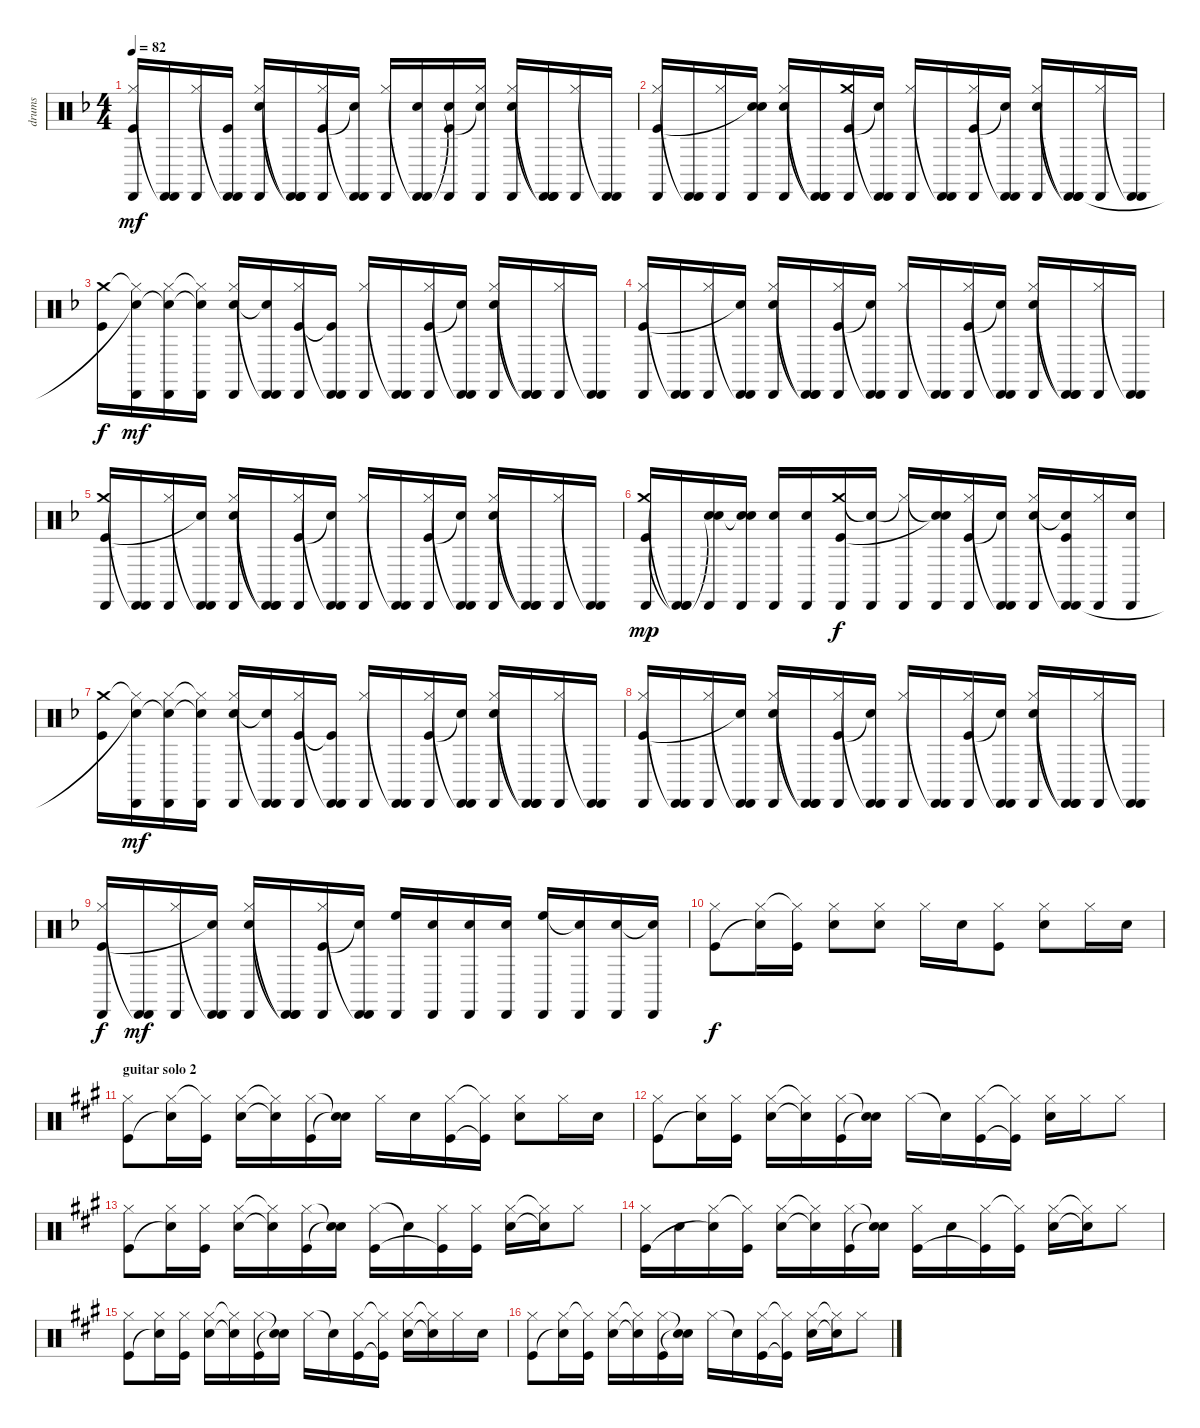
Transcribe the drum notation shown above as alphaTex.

\track ("drums" "drums") {instrument percussion}
\staff {score}
\articulation defaults
\ts (4 4)
\tempo 82
\clef neutral
\ks f
("Hi-Hat (closed)" "Cabasa (hit)" "Kick (hit)").16{dy mf} ("Cabasa (hit)"{t} "Cabasa (hit)").16 ("Hi-Hat (closed)" "Cabasa (hit)").16 ("Cabasa (hit)"{t} "Cabasa (hit)" "Kick (hit)").16 ("Hi-Hat (closed)" "Snare (hit) 2" "Cabasa (hit)").16 ("Cabasa (hit)"{t} "Cabasa (hit)"{t} "Cabasa (hit)").16 ("Hi-Hat (closed)" "Cabasa (hit)" "Kick (hit)").16 ("Cabasa (hit)"{t} "Cabasa (hit)" "Snare (hit)"{t}).16 ("Hi-Hat (closed)" "Cabasa (hit)").16 ("Cabasa (hit)"{t} "Snare (hit) 2" "Cabasa (hit)").16 ("Snare (hit)"{t} "Cabasa (hit)" "Kick (hit)").16 ("Hi-Hat (closed)" "Cabasa (hit)" "Snare (hit)"{t}).16 ("Hi-Hat (closed)" "Snare (hit) 2" "Cabasa (hit)").16 ("Cabasa (hit)"{t} "Cabasa (hit)"{t} "Cabasa (hit)").16 ("Hi-Hat (closed)" "Cabasa (hit)").16 ("Cabasa (hit)"{t} "Cabasa (hit)").16 |
("Hi-Hat (closed)" "Cabasa (hit)" "Kick (hit)").16 ("Cabasa (hit)"{t} "Cabasa (hit)").16 ("Hi-Hat (closed)" "Cabasa (hit)").16 ("Snare (hit) 2" "Cabasa (hit)" "Snare (hit)"{t}).16 ("Hi-Hat (closed)" "Snare (hit) 2" "Cabasa (hit)").16 ("Cabasa (hit)"{t} "Cabasa (hit)"{t} "Cabasa (hit)").16 ("Crash medium (hit)" "Cabasa (hit)" "Kick (hit)").16 ("Cabasa (hit)"{t} "Cabasa (hit)" "Snare (hit)"{t}).16 ("Hi-Hat (closed)" "Cabasa (hit)").16 ("Cabasa (hit)"{t} "Cabasa (hit)").16 ("Hi-Hat (closed)" "Cabasa (hit)" "Kick (hit)").16 ("Cabasa (hit)"{t} "Cabasa (hit)" "Snare (hit)"{t}).16 ("Hi-Hat (closed)" "Snare (hit) 2" "Cabasa (hit)").16 ("Cabasa (hit)"{t} "Cabasa (hit)"{t} "Cabasa (hit)").16 ("Hi-Hat (closed)" "Cabasa (hit)").16 ("Cabasa (hit)"{t} "Cabasa (hit)").16 |
("Crash medium (hit)" "Kick (hit)").16{dy f} ("Hi-Hat (closed)"{t} "Cabasa (hit)" "Snare (hit)"{t}).16{dy mf} ("Hi-Hat (closed)" "Cabasa (hit)" "Snare (hit)"{t}).16 ("Hi-Hat (closed)"{t} "Cabasa (hit)" "Snare (hit)"{t}).16 ("Hi-Hat (closed)" "Snare (hit) 2" "Cabasa (hit)").16 ("Cabasa (hit)"{t} "Snare (hit)"{t} "Cabasa (hit)").16 ("Hi-Hat (closed)" "Cabasa (hit)" "Kick (hit)").16 ("Cabasa (hit)"{t} "Cabasa (hit)" "Kick (hit)"{t}).16 ("Hi-Hat (closed)" "Cabasa (hit)").16 ("Cabasa (hit)"{t} "Cabasa (hit)").16 ("Hi-Hat (closed)" "Cabasa (hit)" "Kick (hit)").16 ("Cabasa (hit)"{t} "Cabasa (hit)" "Snare (hit)"{t}).16 ("Hi-Hat (closed)" "Snare (hit) 2" "Cabasa (hit)").16 ("Cabasa (hit)"{t} "Cabasa (hit)"{t} "Cabasa (hit)").16 ("Hi-Hat (closed)" "Cabasa (hit)").16 ("Cabasa (hit)"{t} "Cabasa (hit)").16 |
("Hi-Hat (closed)" "Cabasa (hit)" "Kick (hit)").16 ("Cabasa (hit)"{t} "Cabasa (hit)").16 ("Hi-Hat (closed)" "Cabasa (hit)").16 ("Cabasa (hit)"{t} "Cabasa (hit)" "Snare (hit)"{t}).16 ("Hi-Hat (closed)" "Snare (hit) 2" "Cabasa (hit)").16 ("Cabasa (hit)"{t} "Cabasa (hit)"{t} "Cabasa (hit)").16 ("Hi-Hat (closed)" "Cabasa (hit)" "Kick (hit)").16 ("Cabasa (hit)"{t} "Cabasa (hit)" "Snare (hit)"{t}).16 ("Hi-Hat (closed)" "Cabasa (hit)").16 ("Cabasa (hit)"{t} "Cabasa (hit)").16 ("Hi-Hat (closed)" "Cabasa (hit)" "Kick (hit)").16 ("Cabasa (hit)"{t} "Cabasa (hit)" "Snare (hit)"{t}).16 ("Hi-Hat (closed)" "Snare (hit) 2" "Cabasa (hit)").16 ("Cabasa (hit)"{t} "Cabasa (hit)"{t} "Cabasa (hit)").16 ("Hi-Hat (closed)" "Cabasa (hit)").16 ("Cabasa (hit)"{t} "Cabasa (hit)").16 |
("Crash medium (hit)" "Cabasa (hit)" "Kick (hit)").16 ("Cabasa (hit)"{t} "Cabasa (hit)").16 ("Hi-Hat (closed)" "Cabasa (hit)").16 ("Cabasa (hit)"{t} "Cabasa (hit)" "Snare (hit)"{t}).16 ("Hi-Hat (closed)" "Snare (hit) 2" "Cabasa (hit)").16 ("Cabasa (hit)"{t} "Cabasa (hit)"{t} "Cabasa (hit)").16 ("Hi-Hat (closed)" "Cabasa (hit)" "Kick (hit)").16 ("Cabasa (hit)"{t} "Cabasa (hit)" "Snare (hit)"{t}).16 ("Hi-Hat (closed)" "Cabasa (hit)").16 ("Cabasa (hit)"{t} "Cabasa (hit)").16 ("Hi-Hat (closed)" "Cabasa (hit)" "Kick (hit)").16 ("Cabasa (hit)"{t} "Cabasa (hit)" "Snare (hit)"{t}).16 ("Hi-Hat (closed)" "Snare (hit) 2" "Cabasa (hit)").16 ("Cabasa (hit)"{t} "Cabasa (hit)"{t} "Cabasa (hit)").16 ("Hi-Hat (closed)" "Cabasa (hit)").16 ("Cabasa (hit)"{t} "Cabasa (hit)").16 |
("Crash medium (hit)" "Cabasa (hit)" "Kick (hit)").16{dy mp} ("Cabasa (hit)"{t} "Cabasa (hit)" "Cabasa (hit)"{t}).16 ("Snare (hit) 2" "Cabasa (hit)" "Snare (hit)"{t}).16 ("Snare (hit) 2" "Cabasa (hit)" "Snare (hit)"{t}).16 ("Snare (hit) 2" "Cabasa (hit)").16 ("Snare (hit) 2" "Cabasa (hit)").16 ("Crash medium (hit)" "Cabasa (hit)" "Kick (hit)").16{dy f} ("Snare (hit)"{t} "Cabasa (hit)").16 ("Hi-Hat (closed)"{t} "Cabasa (hit)").16 ("Snare (hit)"{t} "Cabasa (hit)" "Snare (hit)"{t}).16 ("Hi-Hat (closed)" "Cabasa (hit)" "Kick (hit)").16 ("Cabasa (hit)"{t} "Cabasa (hit)" "Snare (hit)"{t}).16 ("Hi-Hat (closed)" "Snare (hit) 2" "Cabasa (hit)").16 ("Cabasa (hit)"{t} "Snare (hit)"{t} "Cabasa (hit)" "Kick (hit)").16 ("Hi-Hat (closed)" "Cabasa (hit)").16 ("Snare (hit) 2" "Cabasa (hit)").16 |
("Crash medium (hit)" "Kick (hit)").16 ("Hi-Hat (closed)"{t} "Cabasa (hit)" "Snare (hit)"{t}).16{dy mf} ("Hi-Hat (closed)" "Cabasa (hit)" "Snare (hit)"{t}).16 ("Hi-Hat (closed)"{t} "Cabasa (hit)" "Snare (hit)"{t}).16 ("Hi-Hat (closed)" "Snare (hit) 2" "Cabasa (hit)").16 ("Cabasa (hit)"{t} "Snare (hit)"{t} "Cabasa (hit)").16 ("Hi-Hat (closed)" "Cabasa (hit)" "Kick (hit)").16 ("Cabasa (hit)"{t} "Cabasa (hit)" "Kick (hit)"{t}).16 ("Hi-Hat (closed)" "Cabasa (hit)").16 ("Cabasa (hit)"{t} "Cabasa (hit)").16 ("Hi-Hat (closed)" "Cabasa (hit)" "Kick (hit)").16 ("Cabasa (hit)"{t} "Cabasa (hit)" "Snare (hit)"{t}).16 ("Hi-Hat (closed)" "Snare (hit) 2" "Cabasa (hit)").16 ("Cabasa (hit)"{t} "Cabasa (hit)"{t} "Cabasa (hit)").16 ("Hi-Hat (closed)" "Cabasa (hit)").16 ("Cabasa (hit)"{t} "Cabasa (hit)").16 |
("Hi-Hat (closed)" "Cabasa (hit)" "Kick (hit)").16 ("Cabasa (hit)"{t} "Cabasa (hit)").16 ("Hi-Hat (closed)" "Cabasa (hit)").16 ("Cabasa (hit)"{t} "Cabasa (hit)" "Snare (hit)"{t}).16 ("Hi-Hat (closed)" "Snare (hit) 2" "Cabasa (hit)").16 ("Cabasa (hit)"{t} "Cabasa (hit)"{t} "Cabasa (hit)").16 ("Hi-Hat (closed)" "Cabasa (hit)" "Kick (hit)").16 ("Cabasa (hit)"{t} "Cabasa (hit)" "Snare (hit)"{t}).16 ("Hi-Hat (closed)" "Cabasa (hit)").16 ("Cabasa (hit)"{t} "Cabasa (hit)").16 ("Hi-Hat (closed)" "Cabasa (hit)" "Kick (hit)").16 ("Cabasa (hit)"{t} "Cabasa (hit)" "Snare (hit)"{t}).16 ("Hi-Hat (closed)" "Snare (hit) 2" "Cabasa (hit)").16 ("Cabasa (hit)"{t} "Cabasa (hit)"{t} "Cabasa (hit)").16 ("Hi-Hat (closed)" "Cabasa (hit)").16 ("Cabasa (hit)"{t} "Cabasa (hit)").16 |
("Hi-Hat (closed)" "Cabasa (hit)" "Kick (hit)").16{dy f} ("Cabasa (hit)"{t} "Cabasa (hit)").16{dy mf} ("Hi-Hat (closed)" "Cabasa (hit)").16 ("Cabasa (hit)"{t} "Cabasa (hit)" "Snare (hit)"{t}).16 ("Hi-Hat (closed)" "Snare (hit) 2" "Cabasa (hit)").16 ("Cabasa (hit)"{t} "Cabasa (hit)"{t} "Cabasa (hit)").16 ("Hi-Hat (closed)" "Cabasa (hit)" "Kick (hit)").16 ("Cabasa (hit)"{t} "Cabasa (hit)" "Snare (hit)"{t}).16 ("High Floor Tom (hit)" "Cabasa (hit)").16 ("Snare (hit) 2" "Cabasa (hit)").16 ("Snare (hit) 2" "Cabasa (hit)").16 ("Snare (hit) 2" "Cabasa (hit)").16 ("High Floor Tom (hit)" "Cabasa (hit)").16 ("Snare (hit)"{t} "Cabasa (hit)").16 ("Snare (hit) 2" "Cabasa (hit)").16 ("Snare (hit)"{t} "Cabasa (hit)").16 |
("Hi-Hat (closed)" "Kick (hit)").8{dy f} ("Hi-Hat (closed)" "Snare (hit)"{t}).16 ("Hi-Hat (closed)"{t} "Kick (hit)").16 ("Hi-Hat (closed)" "Snare (hit) 2").8 ("Hi-Hat (closed)" "Snare (hit) 2").8 "Hi-Hat (closed)".16 "Snare (hit) 2".16 ("Hi-Hat (closed)" "Kick (hit)").8 ("Hi-Hat (closed)" "Snare (hit) 2").8 "Hi-Hat (closed)".16 "Snare (hit) 2".16 |
\section ("" "guitar solo 2")
\ks a
("Hi-Hat (closed)" "Kick (hit)").8{volume 13} ("Hi-Hat (closed)" "Snare (hit)"{t}).16 ("Hi-Hat (closed)"{t} "Kick (hit)").16 ("Hi-Hat (closed)" "Snare (hit) 2").16 ("Hi-Hat (closed)"{t} "Snare (hit) 2"{t}).16 ("Hi-Hat (closed)" "Kick (hit)").16 ("Snare (hit)"{t} "Snare (hit)"{t}).16 "Hi-Hat (closed)".16 "Snare (hit) 2".16 ("Hi-Hat (closed)" "Kick (hit)").16 ("Hi-Hat (closed)"{t} "Kick (hit)"{t}).16 ("Hi-Hat (closed)" "Snare (hit) 2").8 "Hi-Hat (closed)".16 "Snare (hit) 2".16 |
("Hi-Hat (closed)" "Kick (hit)").8 ("Hi-Hat (closed)" "Snare (hit)"{t}).16 ("Hi-Hat (closed)" "Kick (hit)").16 ("Hi-Hat (closed)" "Snare (hit) 2").16 ("Hi-Hat (closed)"{t} "Snare (hit) 2"{t}).16 ("Hi-Hat (closed)" "Kick (hit)").16 ("Snare (hit)"{t} "Snare (hit)"{t}).16 "Hi-Hat (closed)".16 "Snare (hit)"{t}.16 ("Hi-Hat (closed)" "Kick (hit)").16 ("Hi-Hat (closed)"{t} "Kick (hit)"{t}).16 ("Hi-Hat (closed)" "Snare (hit) 2").16 "Hi-Hat (closed)".16 "Hi-Hat (closed)".8 |
("Hi-Hat (closed)" "Kick (hit)").8 ("Hi-Hat (closed)" "Snare (hit)"{t}).16 ("Hi-Hat (closed)" "Kick (hit)").16 ("Hi-Hat (closed)" "Snare (hit) 2").16 ("Hi-Hat (closed)"{t} "Snare (hit) 2"{t}).16 ("Hi-Hat (closed)" "Kick (hit)").16 ("Snare (hit)"{t} "Snare (hit)"{t}).16 ("Hi-Hat (closed)" "Kick (hit)").16 "Snare (hit)"{t}.16 ("Hi-Hat (closed)" "Kick (hit)"{t}).16 ("Hi-Hat (closed)" "Kick (hit)").16 ("Hi-Hat (closed)" "Snare (hit) 2").16 ("Hi-Hat (closed)"{t} "Snare (hit)"{t}).16 "Hi-Hat (closed)".8 |
("Hi-Hat (closed)" "Kick (hit)").16 "Snare (hit) 2".16 ("Hi-Hat (closed)" "Snare (hit)"{t}).16 ("Hi-Hat (closed)"{t} "Kick (hit)").16 ("Hi-Hat (closed)" "Snare (hit) 2").16 ("Hi-Hat (closed)"{t} "Snare (hit) 2"{t}).16 ("Hi-Hat (closed)" "Kick (hit)").16 ("Snare (hit)"{t} "Snare (hit)"{t}).16 ("Hi-Hat (closed)" "Kick (hit)").16 "Snare (hit) 2".16 ("Hi-Hat (closed)" "Kick (hit)"{t}).16 ("Hi-Hat (closed)"{t} "Kick (hit)").16 ("Hi-Hat (closed)" "Snare (hit) 2").16 ("Hi-Hat (closed)"{t} "Snare (hit)"{t}).16 "Hi-Hat (closed)".8 |
("Hi-Hat (closed)" "Kick (hit)").8 ("Hi-Hat (closed)" "Snare (hit)"{t}).16 ("Hi-Hat (closed)" "Kick (hit)").16 ("Hi-Hat (closed)" "Snare (hit) 2").16 ("Hi-Hat (closed)"{t} "Snare (hit) 2"{t}).16 ("Hi-Hat (closed)" "Kick (hit)").16 ("Snare (hit)"{t} "Snare (hit)"{t}).16 "Hi-Hat (closed)".16 "Snare (hit)"{t}.16 ("Hi-Hat (closed)" "Kick (hit)").16 ("Hi-Hat (closed)"{t} "Kick (hit)"{t}).16 ("Hi-Hat (closed)" "Snare (hit) 2").16 ("Hi-Hat (closed)"{t} "Snare (hit)"{t}).16 "Hi-Hat (closed)".16 "Snare (hit) 2".16 |
("Hi-Hat (closed)" "Kick (hit)").8 ("Hi-Hat (closed)" "Snare (hit)"{t}).16 ("Hi-Hat (closed)"{t} "Kick (hit)").16 ("Hi-Hat (closed)" "Snare (hit) 2").16 ("Hi-Hat (closed)"{t} "Snare (hit) 2"{t}).16 ("Hi-Hat (closed)" "Kick (hit)").16 ("Snare (hit)"{t} "Snare (hit)"{t}).16 "Hi-Hat (closed)".16 "Snare (hit)"{t}.16 ("Hi-Hat (closed)" "Kick (hit)").16 ("Hi-Hat (closed)"{t} "Kick (hit)"{t}).16 ("Hi-Hat (closed)" "Snare (hit) 2").16 ("Hi-Hat (closed)"{t} "Snare (hit)"{t}).16 "Hi-Hat (closed)".8
